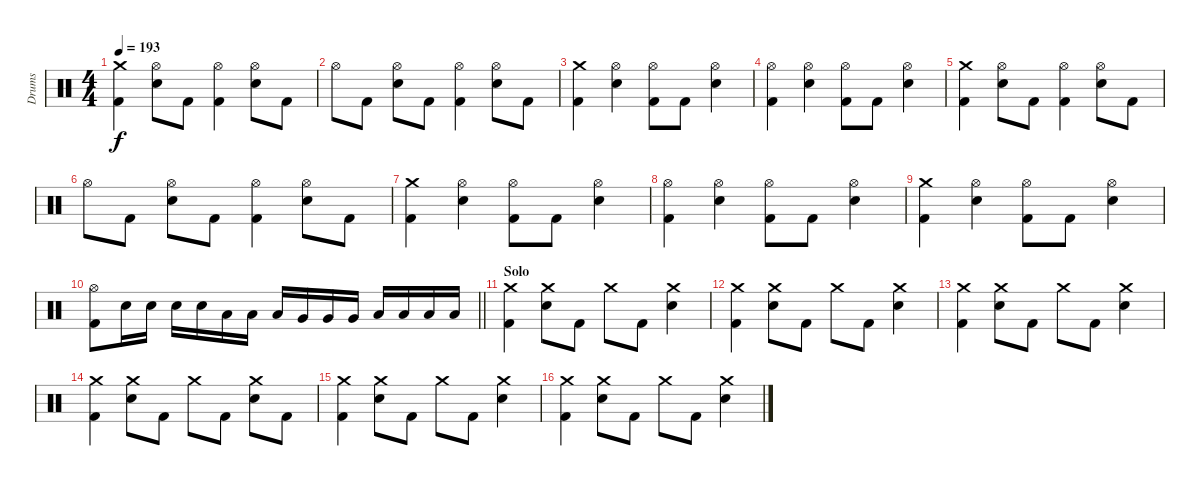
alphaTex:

\track ("Drums" "Drums") {instrument percussion}
\staff {score}
\articulation defaults
\ts (4 4)
\tempo 193
\clef neutral
\ks c
("Crash medium (hit)" "Kick (hit) 2").4{dy f} ("Hi-Hat (open)" "Electric Snare (hit)").8 "Kick (hit) 2".8 ("Hi-Hat (open)" "Kick (hit) 2").4 ("Hi-Hat (open)" "Electric Snare (hit)").8 "Kick (hit) 2".8 |
"Hi-Hat (open)".8 "Kick (hit) 2".8 ("Hi-Hat (open)" "Electric Snare (hit)").8 "Kick (hit) 2".8 ("Hi-Hat (open)" "Kick (hit) 2").4 ("Hi-Hat (open)" "Electric Snare (hit)").8 "Kick (hit) 2".8 |
("Crash medium (hit)" "Kick (hit) 2").4 ("Hi-Hat (open)" "Electric Snare (hit)").4 ("Hi-Hat (open)" "Kick (hit) 2").8 "Kick (hit) 2".8 ("Hi-Hat (open)" "Electric Snare (hit)").4 |
("Hi-Hat (open)" "Kick (hit) 2").4 ("Hi-Hat (open)" "Electric Snare (hit)").4 ("Hi-Hat (open)" "Kick (hit) 2").8 "Kick (hit) 2".8 ("Hi-Hat (open)" "Electric Snare (hit)").4 |
("Crash medium (hit)" "Kick (hit) 2").4 ("Hi-Hat (open)" "Electric Snare (hit)").8 "Kick (hit) 2".8 ("Hi-Hat (open)" "Kick (hit) 2").4 ("Hi-Hat (open)" "Electric Snare (hit)").8 "Kick (hit) 2".8 |
"Hi-Hat (open)".8 "Kick (hit) 2".8 ("Hi-Hat (open)" "Electric Snare (hit)").8 "Kick (hit) 2".8 ("Hi-Hat (open)" "Kick (hit) 2").4 ("Hi-Hat (open)" "Electric Snare (hit)").8 "Kick (hit) 2".8 |
("Crash medium (hit)" "Kick (hit) 2").4 ("Hi-Hat (open)" "Electric Snare (hit)").4 ("Hi-Hat (open)" "Kick (hit) 2").8 "Kick (hit) 2".8 ("Hi-Hat (open)" "Electric Snare (hit)").4 |
("Hi-Hat (open)" "Kick (hit) 2").4 ("Hi-Hat (open)" "Electric Snare (hit)").4 ("Hi-Hat (open)" "Kick (hit) 2").8 "Kick (hit) 2".8 ("Hi-Hat (open)" "Electric Snare (hit)").4 |
("Crash medium (hit)" "Kick (hit) 2").4 ("Hi-Hat (open)" "Electric Snare (hit)").4 ("Hi-Hat (open)" "Kick (hit) 2").8 "Kick (hit) 2".8 ("Hi-Hat (open)" "Electric Snare (hit)").4 |
\barLineRight lightlight
("Hi-Hat (open)" "Kick (hit) 2").8 "Electric Snare (hit)".16 "Electric Snare (hit)".16 "Electric Snare (hit)".16 "Electric Snare (hit)".16 "Low Tom (hit)".16 "Low Tom (hit)".16 "Low Tom (hit)".16 "Very Low Tom (hit)".16 "Very Low Tom (hit)".16 "Very Low Tom (hit)".16 "Low Floor Tom (hit)".16 "Low Floor Tom (hit)".16 "Low Floor Tom (hit)".16 "Low Floor Tom (hit)".16 |
\section ("" "Solo")
("Crash medium (hit)" "Kick (hit) 2").4 ("Crash medium (hit)" "Electric Snare (hit)").8 "Kick (hit) 2".8 "Crash medium (hit)".8 "Kick (hit) 2".8 ("Crash medium (hit)" "Electric Snare (hit)").4 |
("Crash medium (hit)" "Kick (hit) 2").4 ("Crash medium (hit)" "Electric Snare (hit)").8 "Kick (hit) 2".8 "Crash medium (hit)".8 "Kick (hit) 2".8 ("Crash medium (hit)" "Electric Snare (hit)").4 |
("Crash medium (hit)" "Kick (hit) 2").4 ("Crash medium (hit)" "Electric Snare (hit)").8 "Kick (hit) 2".8 "Crash medium (hit)".8 "Kick (hit) 2".8 ("Crash medium (hit)" "Electric Snare (hit)").4 |
("Crash medium (hit)" "Kick (hit) 2").4 ("Crash medium (hit)" "Electric Snare (hit)").8 "Kick (hit) 2".8 "Crash medium (hit)".8 "Kick (hit) 2".8 ("Crash medium (hit)" "Electric Snare (hit)").8 "Kick (hit) 2".8 |
("Crash medium (hit)" "Kick (hit) 2").4 ("Crash medium (hit)" "Electric Snare (hit)").8 "Kick (hit) 2".8 "Crash medium (hit)".8 "Kick (hit) 2".8 ("Crash medium (hit)" "Electric Snare (hit)").4 |
("Crash medium (hit)" "Kick (hit) 2").4 ("Crash medium (hit)" "Electric Snare (hit)").8 "Kick (hit) 2".8 "Crash medium (hit)".8 "Kick (hit) 2".8 ("Crash medium (hit)" "Electric Snare (hit)").4
